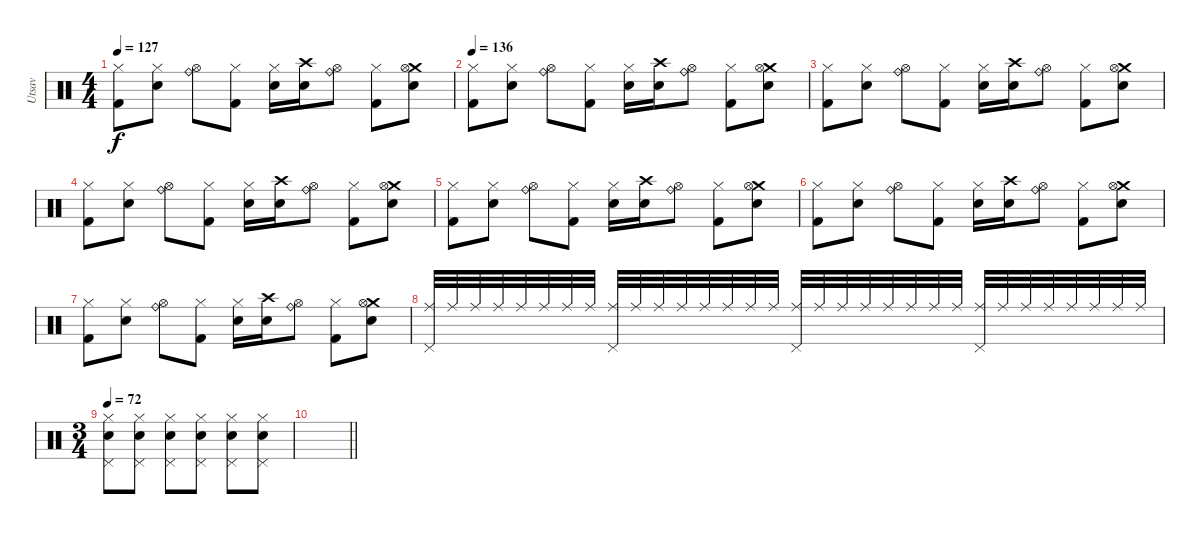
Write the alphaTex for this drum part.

\track ("Utsav" "Utsav") {instrument percussion}
\staff {score}
\articulation defaults
\ts (4 4)
\tempo 127
\clef neutral
\ks c
("Hi-Hat (closed)" "Kick (hit) 2").8{dy f} ("Hi-Hat (closed)" "Snare (hit) 2").8 ("Ride (bell)" "Hi-Hat (open)").8 ("Hi-Hat (closed)" "Kick (hit) 2").8 ("Hi-Hat (closed)" "Snare (hit) 2").16 ("Crash high (hit)" "Snare (hit) 2").16 ("Ride (bell)" "Hi-Hat (open)").8 ("Hi-Hat (closed)" "Kick (hit) 2").8 ("Crash medium (hit)" "Hi-Hat (open)" "Snare (hit) 2").8 |
\tempo 136
("Hi-Hat (closed)" "Kick (hit) 2").8 ("Hi-Hat (closed)" "Snare (hit) 2").8 ("Ride (bell)" "Hi-Hat (open)").8 ("Hi-Hat (closed)" "Kick (hit) 2").8 ("Hi-Hat (closed)" "Snare (hit) 2").16 ("Crash high (hit)" "Snare (hit) 2").16 ("Ride (bell)" "Hi-Hat (open)").8 ("Hi-Hat (closed)" "Kick (hit) 2").8 ("Crash medium (hit)" "Hi-Hat (open)" "Snare (hit) 2").8 |
("Hi-Hat (closed)" "Kick (hit) 2").8 ("Hi-Hat (closed)" "Snare (hit) 2").8 ("Ride (bell)" "Hi-Hat (open)").8 ("Hi-Hat (closed)" "Kick (hit) 2").8 ("Hi-Hat (closed)" "Snare (hit) 2").16 ("Crash high (hit)" "Snare (hit) 2").16 ("Ride (bell)" "Hi-Hat (open)").8 ("Hi-Hat (closed)" "Kick (hit) 2").8 ("Crash medium (hit)" "Hi-Hat (open)" "Snare (hit) 2").8 |
("Hi-Hat (closed)" "Kick (hit) 2").8 ("Hi-Hat (closed)" "Snare (hit) 2").8 ("Ride (bell)" "Hi-Hat (open)").8 ("Hi-Hat (closed)" "Kick (hit) 2").8 ("Hi-Hat (closed)" "Snare (hit) 2").16 ("Crash high (hit)" "Snare (hit) 2").16 ("Ride (bell)" "Hi-Hat (open)").8 ("Hi-Hat (closed)" "Kick (hit) 2").8 ("Crash medium (hit)" "Hi-Hat (open)" "Snare (hit) 2").8 |
("Hi-Hat (closed)" "Kick (hit) 2").8 ("Hi-Hat (closed)" "Snare (hit) 2").8 ("Ride (bell)" "Hi-Hat (open)").8 ("Hi-Hat (closed)" "Kick (hit) 2").8 ("Hi-Hat (closed)" "Snare (hit) 2").16 ("Crash high (hit)" "Snare (hit) 2").16 ("Ride (bell)" "Hi-Hat (open)").8 ("Hi-Hat (closed)" "Kick (hit) 2").8 ("Crash medium (hit)" "Hi-Hat (open)" "Snare (hit) 2").8 |
("Hi-Hat (closed)" "Kick (hit) 2").8 ("Hi-Hat (closed)" "Snare (hit) 2").8 ("Ride (bell)" "Hi-Hat (open)").8 ("Hi-Hat (closed)" "Kick (hit) 2").8 ("Hi-Hat (closed)" "Snare (hit) 2").16 ("Crash high (hit)" "Snare (hit) 2").16 ("Ride (bell)" "Hi-Hat (open)").8 ("Hi-Hat (closed)" "Kick (hit) 2").8 ("Crash medium (hit)" "Hi-Hat (open)" "Snare (hit) 2").8 |
("Hi-Hat (closed)" "Kick (hit) 2").8 ("Hi-Hat (closed)" "Snare (hit) 2").8 ("Ride (bell)" "Hi-Hat (open)").8 ("Hi-Hat (closed)" "Kick (hit) 2").8 ("Hi-Hat (closed)" "Snare (hit) 2").16 ("Crash high (hit)" "Snare (hit) 2").16 ("Ride (bell)" "Hi-Hat (open)").8 ("Hi-Hat (closed)" "Kick (hit) 2").8 ("Crash medium (hit)" "Hi-Hat (open)" "Snare (hit) 2").8 |
("Ride (middle)" "Pedal Hi-Hat (hit)").32 "Ride (middle)".32 "Ride (middle)".32 "Ride (middle)".32 "Ride (middle)".32 "Ride (middle)".32 "Ride (middle)".32 "Ride (middle)".32 ("Ride (middle)" "Pedal Hi-Hat (hit)").32 "Ride (middle)".32 "Ride (middle)".32 "Ride (middle)".32 "Ride (middle)".32 "Ride (middle)".32 "Ride (middle)".32 "Ride (middle)".32 ("Ride (middle)" "Pedal Hi-Hat (hit)").32 "Ride (middle)".32 "Ride (middle)".32 "Ride (middle)".32 "Ride (middle)".32 "Ride (middle)".32 "Ride (middle)".32 "Ride (middle)".32 ("Ride (middle)" "Pedal Hi-Hat (hit)").32 "Ride (middle)".32 "Ride (middle)".32 "Ride (middle)".32 "Ride (middle)".32 "Ride (middle)".32 "Ride (middle)".32 "Ride (middle)".32 |
\ts (3 4)
\tempo 72
("Pedal Hi-Hat (hit)" "Snare (hit) 2" "Hi-Hat (closed)").8 ("Pedal Hi-Hat (hit)" "Snare (hit) 2" "Hi-Hat (closed)").8 ("Pedal Hi-Hat (hit)" "Snare (hit) 2" "Hi-Hat (closed)").8 ("Pedal Hi-Hat (hit)" "Snare (hit) 2" "Hi-Hat (closed)").8 ("Pedal Hi-Hat (hit)" "Snare (hit) 2" "Hi-Hat (closed)").8 ("Pedal Hi-Hat (hit)" "Snare (hit) 2" "Hi-Hat (closed)").8 |
\barLineRight lightlight
\ks aminor
